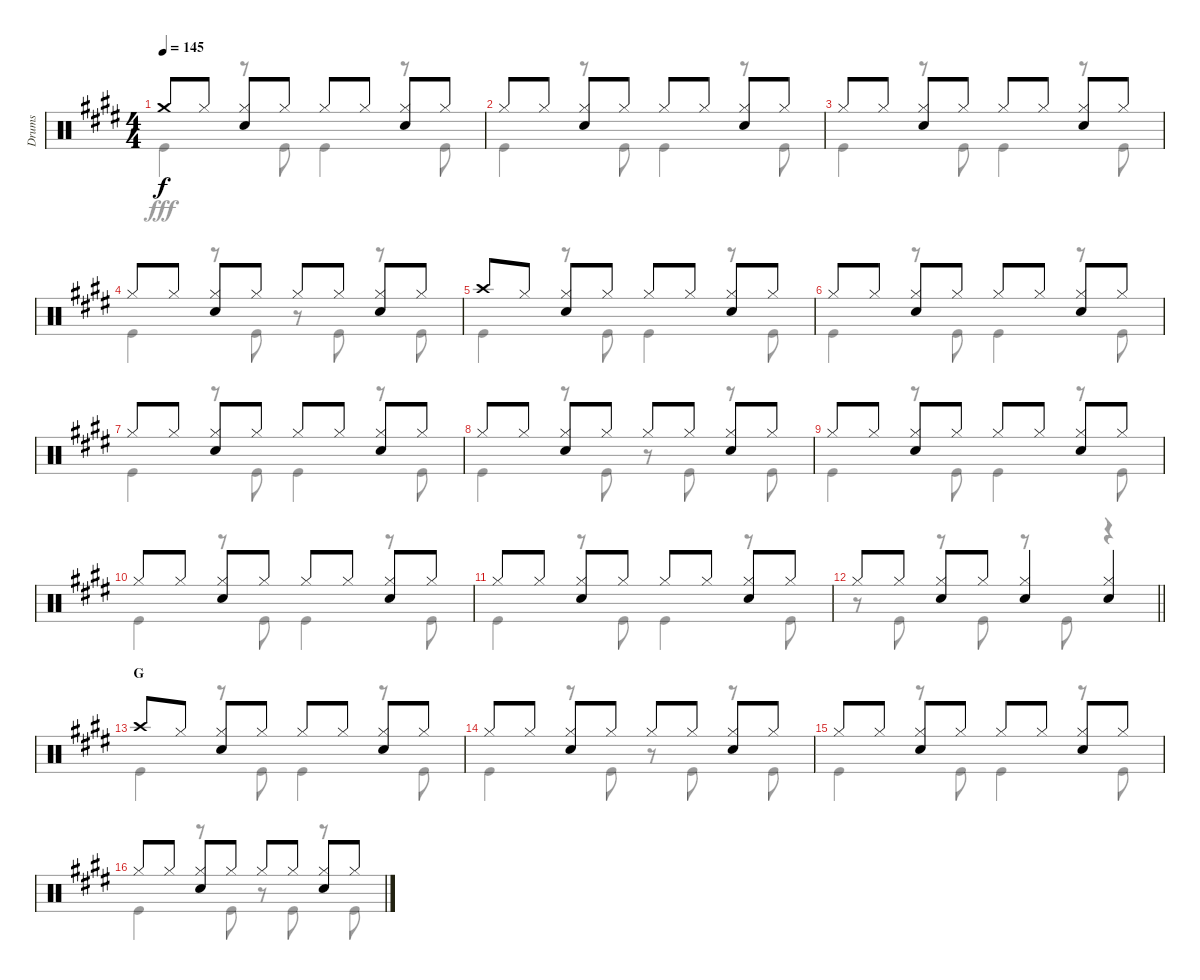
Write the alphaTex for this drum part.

\track ("Drums" "Drums") {instrument percussion}
\staff {score}
\articulation defaults
\voice
\ts (4 4)
\tempo 145
\clef neutral
\ks e "Crash medium (hit)".8{dy f} "Hi-Hat (closed)".8
("Hi-Hat (closed)" "Snare (hit) 2").8 "Hi-Hat (closed)".8 "Hi-Hat (closed)".8 "Hi-Hat (closed)".8 ("Hi-Hat (closed)" "Snare (hit) 2").8 "Hi-Hat (closed)".8 |
"Hi-Hat (closed)".8 "Hi-Hat (closed)".8 ("Hi-Hat (closed)" "Snare (hit) 2").8 "Hi-Hat (closed)".8 "Hi-Hat (closed)".8 "Hi-Hat (closed)".8 ("Hi-Hat (closed)" "Snare (hit) 2").8 "Hi-Hat (closed)".8 |
"Hi-Hat (closed)".8 "Hi-Hat (closed)".8 ("Hi-Hat (closed)" "Snare (hit) 2").8 "Hi-Hat (closed)".8 "Hi-Hat (closed)".8 "Hi-Hat (closed)".8 ("Hi-Hat (closed)" "Snare (hit) 2").8 "Hi-Hat (closed)".8 |
"Hi-Hat (closed)".8 "Hi-Hat (closed)".8 ("Hi-Hat (closed)" "Snare (hit) 2").8 "Hi-Hat (closed)".8 "Hi-Hat (closed)".8 "Hi-Hat (closed)".8 ("Hi-Hat (closed)" "Snare (hit) 2").8 "Hi-Hat (closed)".8 |
"Crash high (hit)".8 "Hi-Hat (closed)".8 ("Hi-Hat (closed)" "Snare (hit) 2").8 "Hi-Hat (closed)".8 "Hi-Hat (closed)".8 "Hi-Hat (closed)".8 ("Hi-Hat (closed)" "Snare (hit) 2").8 "Hi-Hat (closed)".8 |
"Hi-Hat (closed)".8 "Hi-Hat (closed)".8 ("Hi-Hat (closed)" "Snare (hit) 2").8 "Hi-Hat (closed)".8 "Hi-Hat (closed)".8 "Hi-Hat (closed)".8 ("Hi-Hat (closed)" "Snare (hit) 2").8 "Hi-Hat (closed)".8 |
"Hi-Hat (closed)".8 "Hi-Hat (closed)".8 ("Hi-Hat (closed)" "Snare (hit) 2").8 "Hi-Hat (closed)".8 "Hi-Hat (closed)".8 "Hi-Hat (closed)".8 ("Hi-Hat (closed)" "Snare (hit) 2").8 "Hi-Hat (closed)".8 |
"Hi-Hat (closed)".8 "Hi-Hat (closed)".8 ("Hi-Hat (closed)" "Snare (hit) 2").8 "Hi-Hat (closed)".8 "Hi-Hat (closed)".8 "Hi-Hat (closed)".8 ("Hi-Hat (closed)" "Snare (hit) 2").8 "Hi-Hat (closed)".8 |
"Hi-Hat (closed)".8 "Hi-Hat (closed)".8 ("Hi-Hat (closed)" "Snare (hit) 2").8 "Hi-Hat (closed)".8 "Hi-Hat (closed)".8 "Hi-Hat (closed)".8 ("Hi-Hat (closed)" "Snare (hit) 2").8 "Hi-Hat (closed)".8 |
"Hi-Hat (closed)".8 "Hi-Hat (closed)".8 ("Hi-Hat (closed)" "Snare (hit) 2").8 "Hi-Hat (closed)".8 "Hi-Hat (closed)".8 "Hi-Hat (closed)".8 ("Hi-Hat (closed)" "Snare (hit) 2").8 "Hi-Hat (closed)".8 |
"Hi-Hat (closed)".8 "Hi-Hat (closed)".8 ("Hi-Hat (closed)" "Snare (hit) 2").8 "Hi-Hat (closed)".8 "Hi-Hat (closed)".8 "Hi-Hat (closed)".8 ("Hi-Hat (closed)" "Snare (hit) 2").8 "Hi-Hat (closed)".8 |
\barLineRight lightlight "Hi-Hat (closed)".8 "Hi-Hat (closed)".8
("Hi-Hat (closed)" "Snare (hit) 2").8 "Hi-Hat (closed)".8 ("Hi-Hat (closed)" "Snare (hit) 2").4 ("Hi-Hat (closed)" "Snare (hit) 2").4 |
\section ("" "G")
"Crash high (hit)".8 "Hi-Hat (closed)".8 ("Hi-Hat (closed)" "Snare (hit) 2").8 "Hi-Hat (closed)".8 "Hi-Hat (closed)".8 "Hi-Hat (closed)".8 ("Hi-Hat (closed)" "Snare (hit) 2").8 "Hi-Hat (closed)".8 |
"Hi-Hat (closed)".8 "Hi-Hat (closed)".8 ("Hi-Hat (closed)" "Snare (hit) 2").8 "Hi-Hat (closed)".8 "Hi-Hat (closed)".8 "Hi-Hat (closed)".8 ("Hi-Hat (closed)" "Snare (hit) 2").8 "Hi-Hat (closed)".8 |
"Hi-Hat (closed)".8 "Hi-Hat (closed)".8 ("Hi-Hat (closed)" "Snare (hit) 2").8 "Hi-Hat (closed)".8 "Hi-Hat (closed)".8 "Hi-Hat (closed)".8 ("Hi-Hat (closed)" "Snare (hit) 2").8 "Hi-Hat (closed)".8 |
"Hi-Hat (closed)".8 "Hi-Hat (closed)".8 ("Hi-Hat (closed)" "Snare (hit) 2").8 "Hi-Hat (closed)".8 "Hi-Hat (closed)".8 "Hi-Hat (closed)".8 ("Hi-Hat (closed)" "Snare (hit) 2").8 "Hi-Hat (closed)".8
\voice
\clef neutral
\ottava regular
\simile none
\ks e "Kick (hit)".4{dy fff}
r.8 "Kick (hit)".8 "Kick (hit)".4 r.8 "Kick (hit)".8 |
"Kick (hit)".4 r.8 "Kick (hit)".8 "Kick (hit)".4 r.8 "Kick (hit)".8 |
"Kick (hit)".4 r.8 "Kick (hit)".8 "Kick (hit)".4 r.8 "Kick (hit)".8 |
"Kick (hit)".4 r.8 "Kick (hit)".8 r.8 "Kick (hit)".8 r.8 "Kick (hit)".8 |
"Kick (hit)".4 r.8 "Kick (hit)".8 "Kick (hit)".4 r.8 "Kick (hit)".8 |
"Kick (hit)".4 r.8 "Kick (hit)".8 "Kick (hit)".4 r.8 "Kick (hit)".8 |
"Kick (hit)".4 r.8 "Kick (hit)".8 "Kick (hit)".4 r.8 "Kick (hit)".8 |
"Kick (hit)".4 r.8 "Kick (hit)".8 r.8 "Kick (hit)".8 r.8 "Kick (hit)".8 |
"Kick (hit)".4 r.8 "Kick (hit)".8 "Kick (hit)".4 r.8 "Kick (hit)".8 |
"Kick (hit)".4 r.8 "Kick (hit)".8 "Kick (hit)".4 r.8 "Kick (hit)".8 |
"Kick (hit)".4 r.8 "Kick (hit)".8 "Kick (hit)".4 r.8 "Kick (hit)".8 |
\barLineRight lightlight
r.8 "Kick (hit)".8 r.8 "Kick (hit)".8 r.8 "Kick (hit)".8 r.4 |
"Kick (hit)".4 r.8 "Kick (hit)".8 "Kick (hit)".4 r.8 "Kick (hit)".8 |
"Kick (hit)".4 r.8 "Kick (hit)".8 r.8 "Kick (hit)".8 r.8 "Kick (hit)".8 |
"Kick (hit)".4 r.8 "Kick (hit)".8 "Kick (hit)".4 r.8 "Kick (hit)".8 |
"Kick (hit)".4 r.8 "Kick (hit)".8 r.8 "Kick (hit)".8 r.8 "Kick (hit)".8
